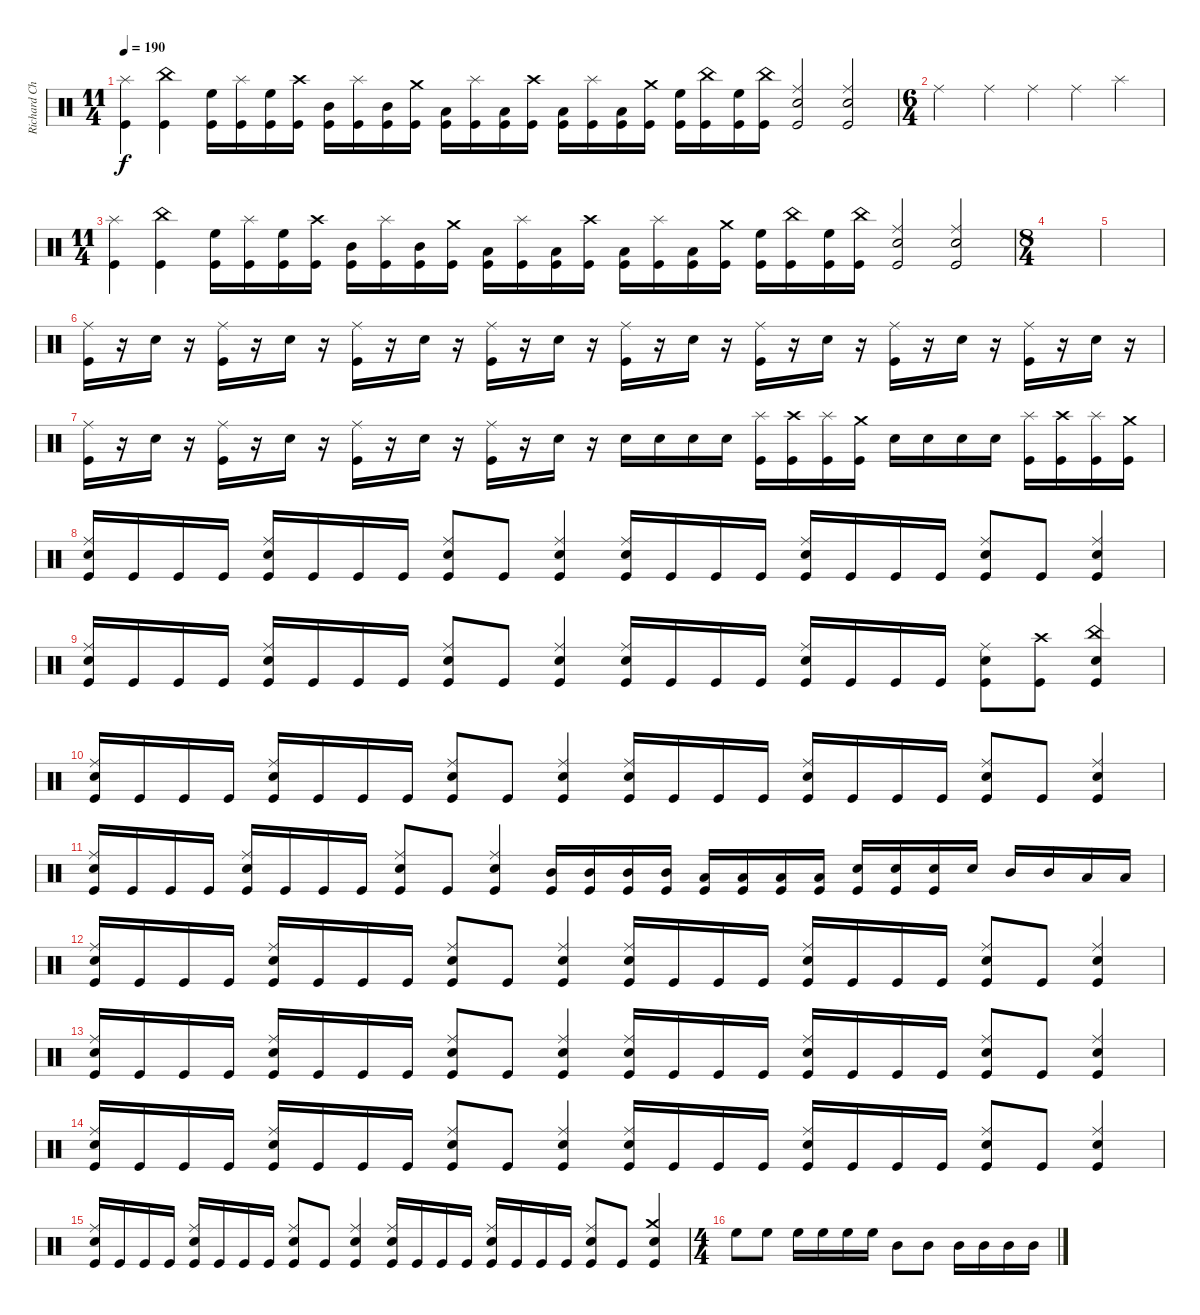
\track ("Richard Christy" "Richard Ch") {instrument percussion}
\staff {score}
\articulation defaults
\ts (11 4)
\tempo 190
\clef neutral
\ks c
("Splash (hit)" "Kick (hit)").4{dy f} ("China (hit)" "Kick (hit)").4 ("High Floor Tom (hit)" "Kick (hit)").16 ("Splash (hit)" "Kick (hit)").16 ("High Floor Tom (hit)" "Kick (hit)").16 ("Crash high (hit)" "Kick (hit)").16 ("Mid Tom (hit)" "Kick (hit)").16 ("Splash (hit)" "Kick (hit)").16 ("Mid Tom (hit)" "Kick (hit)").16 ("Crash medium (hit)" "Kick (hit)").16 ("Low Tom (hit)" "Kick (hit)").16 ("Splash (hit)" "Kick (hit)").16 ("Low Tom (hit)" "Kick (hit)").16 ("Crash high (hit)" "Kick (hit)").16 ("Low Floor Tom (hit)" "Kick (hit)").16 ("Splash (hit)" "Kick (hit)").16 ("Low Floor Tom (hit)" "Kick (hit)").16 ("Crash medium (hit)" "Kick (hit)").16 ("High Floor Tom (hit)" "Kick (hit)").16 ("China (hit)" "Kick (hit)").16 ("High Floor Tom (hit)" "Kick (hit)").16 ("China (hit)" "Kick (hit)").16 ("Ride (middle)" "Electric Snare (hit)" "Kick (hit)").2 ("Ride (middle)" "Electric Snare (hit)" "Kick (hit)").2 |
\ts (6 4)
"Ride (middle)".2 "Ride (middle)".4 "Ride (middle)".4 "Ride (middle)".4 "Splash (hit)".4 |
\ts (11 4)
("Splash (hit)" "Kick (hit)").4 ("China (hit)" "Kick (hit)").4 ("High Floor Tom (hit)" "Kick (hit)").16 ("Splash (hit)" "Kick (hit)").16 ("High Floor Tom (hit)" "Kick (hit)").16 ("Crash high (hit)" "Kick (hit)").16 ("Mid Tom (hit)" "Kick (hit)").16 ("Splash (hit)" "Kick (hit)").16 ("Mid Tom (hit)" "Kick (hit)").16 ("Crash medium (hit)" "Kick (hit)").16 ("Low Tom (hit)" "Kick (hit)").16 ("Splash (hit)" "Kick (hit)").16 ("Low Tom (hit)" "Kick (hit)").16 ("Crash high (hit)" "Kick (hit)").16 ("Low Floor Tom (hit)" "Kick (hit)").16 ("Splash (hit)" "Kick (hit)").16 ("Low Floor Tom (hit)" "Kick (hit)").16 ("Crash medium (hit)" "Kick (hit)").16 ("High Floor Tom (hit)" "Kick (hit)").16 ("China (hit)" "Kick (hit)").16 ("High Floor Tom (hit)" "Kick (hit)").16 ("China (hit)" "Kick (hit)").16 ("Ride (middle)" "Electric Snare (hit)" "Kick (hit)").2 ("Ride (middle)" "Electric Snare (hit)" "Kick (hit)").2 |
\ts (8 4)
|
|
("Ride (middle)" "Kick (hit)").16 r.16 "Electric Snare (hit)".16 r.16 ("Ride (middle)" "Kick (hit)").16 r.16 "Electric Snare (hit)".16 r.16 ("Ride (middle)" "Kick (hit)").16 r.16 "Electric Snare (hit)".16 r.16 ("Ride (middle)" "Kick (hit)").16 r.16 "Electric Snare (hit)".16 r.16 ("Ride (middle)" "Kick (hit)").16 r.16 "Electric Snare (hit)".16 r.16 ("Ride (middle)" "Kick (hit)").16 r.16 "Electric Snare (hit)".16 r.16 ("Ride (middle)" "Kick (hit)").16 r.16 "Electric Snare (hit)".16 r.16 ("Ride (middle)" "Kick (hit)").16 r.16 "Electric Snare (hit)".16 r.16 |
("Ride (middle)" "Kick (hit)").16 r.16 "Electric Snare (hit)".16 r.16 ("Ride (middle)" "Kick (hit)").16 r.16 "Electric Snare (hit)".16 r.16 ("Ride (middle)" "Kick (hit)").16 r.16 "Electric Snare (hit)".16 r.16 ("Ride (middle)" "Kick (hit)").16 r.16 "Electric Snare (hit)".16 r.16 "Electric Snare (hit)".16 "Electric Snare (hit)".16 "Electric Snare (hit)".16 "Electric Snare (hit)".16 ("Splash (hit)" "Kick (hit)").16 ("Crash high (hit)" "Kick (hit)").16 ("Splash (hit)" "Kick (hit)").16 ("Crash medium (hit)" "Kick (hit)").16 "Electric Snare (hit)".16 "Electric Snare (hit)".16 "Electric Snare (hit)".16 "Electric Snare (hit)".16 ("Splash (hit)" "Kick (hit)").16 ("Crash high (hit)" "Kick (hit)").16 ("Splash (hit)" "Kick (hit)").16 ("Crash medium (hit)" "Kick (hit)").16 |
("Ride (middle)" "Electric Snare (hit)" "Kick (hit)").16 "Kick (hit)".16 "Kick (hit)".16 "Kick (hit)".16 ("Ride (middle)" "Electric Snare (hit)" "Kick (hit)").16 "Kick (hit)".16 "Kick (hit)".16 "Kick (hit)".16 ("Ride (middle)" "Electric Snare (hit)" "Kick (hit)").8 "Kick (hit)".8 ("Ride (middle)" "Electric Snare (hit)" "Kick (hit)").4 ("Ride (middle)" "Electric Snare (hit)" "Kick (hit)").16 "Kick (hit)".16 "Kick (hit)".16 "Kick (hit)".16 ("Ride (middle)" "Electric Snare (hit)" "Kick (hit)").16 "Kick (hit)".16 "Kick (hit)".16 "Kick (hit)".16 ("Ride (middle)" "Electric Snare (hit)" "Kick (hit)").8 "Kick (hit)".8 ("Ride (middle)" "Electric Snare (hit)" "Kick (hit)").4 |
("Ride (middle)" "Electric Snare (hit)" "Kick (hit)").16 "Kick (hit)".16 "Kick (hit)".16 "Kick (hit)".16 ("Ride (middle)" "Electric Snare (hit)" "Kick (hit)").16 "Kick (hit)".16 "Kick (hit)".16 "Kick (hit)".16 ("Ride (middle)" "Electric Snare (hit)" "Kick (hit)").8 "Kick (hit)".8 ("Ride (middle)" "Electric Snare (hit)" "Kick (hit)").4 ("Ride (middle)" "Electric Snare (hit)" "Kick (hit)").16 "Kick (hit)".16 "Kick (hit)".16 "Kick (hit)".16 ("Ride (middle)" "Electric Snare (hit)" "Kick (hit)").16 "Kick (hit)".16 "Kick (hit)".16 "Kick (hit)".16 ("Ride (middle)" "Electric Snare (hit)" "Kick (hit)").8 ("Crash high (hit)" "Kick (hit)").8 ("China (hit)" "Electric Snare (hit)" "Kick (hit)").4 |
("Ride (middle)" "Electric Snare (hit)" "Kick (hit)").16 "Kick (hit)".16 "Kick (hit)".16 "Kick (hit)".16 ("Ride (middle)" "Electric Snare (hit)" "Kick (hit)").16 "Kick (hit)".16 "Kick (hit)".16 "Kick (hit)".16 ("Ride (middle)" "Electric Snare (hit)" "Kick (hit)").8 "Kick (hit)".8 ("Ride (middle)" "Electric Snare (hit)" "Kick (hit)").4 ("Ride (middle)" "Electric Snare (hit)" "Kick (hit)").16 "Kick (hit)".16 "Kick (hit)".16 "Kick (hit)".16 ("Ride (middle)" "Electric Snare (hit)" "Kick (hit)").16 "Kick (hit)".16 "Kick (hit)".16 "Kick (hit)".16 ("Ride (middle)" "Electric Snare (hit)" "Kick (hit)").8 "Kick (hit)".8 ("Ride (middle)" "Electric Snare (hit)" "Kick (hit)").4 |
("Ride (middle)" "Electric Snare (hit)" "Kick (hit)").16 "Kick (hit)".16 "Kick (hit)".16 "Kick (hit)".16 ("Ride (middle)" "Electric Snare (hit)" "Kick (hit)").16 "Kick (hit)".16 "Kick (hit)".16 "Kick (hit)".16 ("Ride (middle)" "Electric Snare (hit)" "Kick (hit)").8 "Kick (hit)".8 ("Ride (middle)" "Electric Snare (hit)" "Kick (hit)").4 ("Mid Tom (hit)" "Kick (hit)").16 ("Mid Tom (hit)" "Kick (hit)").16 ("Mid Tom (hit)" "Kick (hit)").16 ("Mid Tom (hit)" "Kick (hit)").16 ("Low Tom (hit)" "Kick (hit)").16 ("Low Tom (hit)" "Kick (hit)").16 ("Low Tom (hit)" "Kick (hit)").16 ("Low Tom (hit)" "Kick (hit)").16 ("Electric Snare (hit)" "Kick (hit)").16 ("Electric Snare (hit)" "Kick (hit)").16 ("Electric Snare (hit)" "Kick (hit)").16 "Electric Snare (hit)".16 "Mid Tom (hit)".16 "Mid Tom (hit)".16 "Low Tom (hit)".16 "Low Tom (hit)".16 |
("Ride (middle)" "Electric Snare (hit)" "Kick (hit)").16 "Kick (hit)".16 "Kick (hit)".16 "Kick (hit)".16 ("Ride (middle)" "Electric Snare (hit)" "Kick (hit)").16 "Kick (hit)".16 "Kick (hit)".16 "Kick (hit)".16 ("Ride (middle)" "Electric Snare (hit)" "Kick (hit)").8 "Kick (hit)".8 ("Ride (middle)" "Electric Snare (hit)" "Kick (hit)").4 ("Ride (middle)" "Electric Snare (hit)" "Kick (hit)").16 "Kick (hit)".16 "Kick (hit)".16 "Kick (hit)".16 ("Ride (middle)" "Electric Snare (hit)" "Kick (hit)").16 "Kick (hit)".16 "Kick (hit)".16 "Kick (hit)".16 ("Ride (middle)" "Electric Snare (hit)" "Kick (hit)").8 "Kick (hit)".8 ("Ride (middle)" "Electric Snare (hit)" "Kick (hit)").4 |
("Ride (middle)" "Electric Snare (hit)" "Kick (hit)").16 "Kick (hit)".16 "Kick (hit)".16 "Kick (hit)".16 ("Ride (middle)" "Electric Snare (hit)" "Kick (hit)").16 "Kick (hit)".16 "Kick (hit)".16 "Kick (hit)".16 ("Ride (middle)" "Electric Snare (hit)" "Kick (hit)").8 "Kick (hit)".8 ("Ride (middle)" "Electric Snare (hit)" "Kick (hit)").4 ("Ride (middle)" "Electric Snare (hit)" "Kick (hit)").16 "Kick (hit)".16 "Kick (hit)".16 "Kick (hit)".16 ("Ride (middle)" "Electric Snare (hit)" "Kick (hit)").16 "Kick (hit)".16 "Kick (hit)".16 "Kick (hit)".16 ("Ride (middle)" "Electric Snare (hit)" "Kick (hit)").8 "Kick (hit)".8 ("Ride (middle)" "Electric Snare (hit)" "Kick (hit)").4 |
("Ride (middle)" "Electric Snare (hit)" "Kick (hit)").16 "Kick (hit)".16 "Kick (hit)".16 "Kick (hit)".16 ("Ride (middle)" "Electric Snare (hit)" "Kick (hit)").16 "Kick (hit)".16 "Kick (hit)".16 "Kick (hit)".16 ("Ride (middle)" "Electric Snare (hit)" "Kick (hit)").8 "Kick (hit)".8 ("Ride (middle)" "Electric Snare (hit)" "Kick (hit)").4 ("Ride (middle)" "Electric Snare (hit)" "Kick (hit)").16 "Kick (hit)".16 "Kick (hit)".16 "Kick (hit)".16 ("Ride (middle)" "Electric Snare (hit)" "Kick (hit)").16 "Kick (hit)".16 "Kick (hit)".16 "Kick (hit)".16 ("Ride (middle)" "Electric Snare (hit)" "Kick (hit)").8 "Kick (hit)".8 ("Ride (middle)" "Electric Snare (hit)" "Kick (hit)").4 |
("Ride (middle)" "Electric Snare (hit)" "Kick (hit)").16 "Kick (hit)".16 "Kick (hit)".16 "Kick (hit)".16 ("Ride (middle)" "Electric Snare (hit)" "Kick (hit)").16 "Kick (hit)".16 "Kick (hit)".16 "Kick (hit)".16 ("Ride (middle)" "Electric Snare (hit)" "Kick (hit)").8 "Kick (hit)".8 ("Ride (middle)" "Electric Snare (hit)" "Kick (hit)").4 ("Ride (middle)" "Electric Snare (hit)" "Kick (hit)").16 "Kick (hit)".16 "Kick (hit)".16 "Kick (hit)".16 ("Ride (middle)" "Electric Snare (hit)" "Kick (hit)").16 "Kick (hit)".16 "Kick (hit)".16 "Kick (hit)".16 ("Ride (middle)" "Electric Snare (hit)" "Kick (hit)").8 "Kick (hit)".8 ("Crash medium (hit)" "Electric Snare (hit)" "Kick (hit)").4 |
\ts (4 4)
"High Floor Tom (hit)".8 "High Floor Tom (hit)".8 "High Floor Tom (hit)".16 "High Floor Tom (hit)".16 "High Floor Tom (hit)".16 "High Floor Tom (hit)".16 "Mid Tom (hit)".8 "Mid Tom (hit)".8 "Mid Tom (hit)".16 "Mid Tom (hit)".16 "Mid Tom (hit)".16 "Mid Tom (hit)".16
